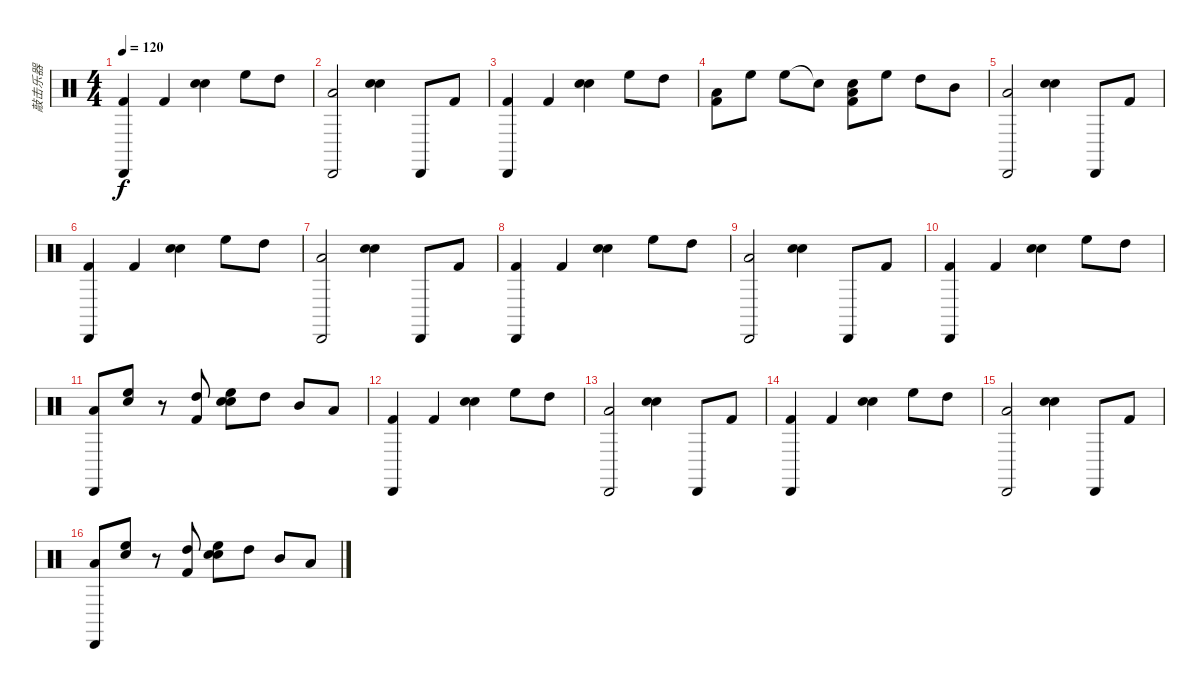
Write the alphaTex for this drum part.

\track ("敲击乐器" "敲击乐器") {instrument percussion}
\staff {score}
\articulation defaults
\ts (4 4)
\tempo 120
\clef neutral
\ks c
("Kick (hit) 2" "Cabasa (hit)").4{dy f} "Kick (hit) 2".4 ("Electric Snare (hit)" "Hand Clap (hit)").4 "High Floor Tom (hit)".8 "High Tom (hit)".8 |
("Low Tom (hit)" "Cabasa (hit)").2 ("Electric Snare (hit)" "Hand Clap (hit)").4 "Cabasa (hit)".8 "Kick (hit) 2".8 |
("Kick (hit) 2" "Cabasa (hit)").4 "Kick (hit) 2".4 ("Electric Snare (hit)" "Hand Clap (hit)").4 "High Floor Tom (hit)".8 "High Tom (hit)".8 |
("Low Tom (hit)" "Kick (hit) 2").8 "High Floor Tom (hit)".8 "High Floor Tom (hit)".8 "Snare (hit)"{t}.8 ("Low Tom (hit)" "Kick (hit) 2" "Electric Snare (hit)").8 "High Floor Tom (hit)".8 "High Tom (hit)".8 "Mid Tom (hit)".8 |
("Low Tom (hit)" "Cabasa (hit)").2 ("Electric Snare (hit)" "Hand Clap (hit)").4 "Cabasa (hit)".8 "Kick (hit) 2".8 |
("Kick (hit) 2" "Cabasa (hit)").4 "Kick (hit) 2".4 ("Electric Snare (hit)" "Hand Clap (hit)").4 "High Floor Tom (hit)".8 "High Tom (hit)".8 |
("Low Tom (hit)" "Cabasa (hit)").2 ("Electric Snare (hit)" "Hand Clap (hit)").4 "Cabasa (hit)".8 "Kick (hit) 2".8 |
("Kick (hit) 2" "Cabasa (hit)").4 "Kick (hit) 2".4 ("Electric Snare (hit)" "Hand Clap (hit)").4 "High Floor Tom (hit)".8 "High Tom (hit)".8 |
("Low Tom (hit)" "Cabasa (hit)").2 ("Electric Snare (hit)" "Hand Clap (hit)").4 "Cabasa (hit)".8 "Kick (hit) 2".8 |
("Kick (hit) 2" "Cabasa (hit)").4 "Kick (hit) 2".4 ("Electric Snare (hit)" "Hand Clap (hit)").4 "High Floor Tom (hit)".8 "High Tom (hit)".8 |
("Low Tom (hit)" "Cabasa (hit)").8 ("High Floor Tom (hit)" "Electric Snare (hit)").8 r.8 ("High Tom (hit)" "Kick (hit) 2").8 ("High Floor Tom (hit)" "Electric Snare (hit)" "Hand Clap (hit)").8 "High Tom (hit)".8 "Mid Tom (hit)".8 "Low Tom (hit)".8 |
("Kick (hit) 2" "Cabasa (hit)").4 "Kick (hit) 2".4 ("Electric Snare (hit)" "Hand Clap (hit)").4 "High Floor Tom (hit)".8 "High Tom (hit)".8 |
("Low Tom (hit)" "Cabasa (hit)").2 ("Electric Snare (hit)" "Hand Clap (hit)").4 "Cabasa (hit)".8 "Kick (hit) 2".8 |
("Kick (hit) 2" "Cabasa (hit)").4 "Kick (hit) 2".4 ("Electric Snare (hit)" "Hand Clap (hit)").4 "High Floor Tom (hit)".8 "High Tom (hit)".8 |
("Low Tom (hit)" "Cabasa (hit)").2 ("Electric Snare (hit)" "Hand Clap (hit)").4 "Cabasa (hit)".8 "Kick (hit) 2".8 |
("Low Tom (hit)" "Cabasa (hit)").8 ("High Floor Tom (hit)" "Electric Snare (hit)").8 r.8 ("High Tom (hit)" "Kick (hit) 2").8 ("High Floor Tom (hit)" "Electric Snare (hit)" "Hand Clap (hit)").8 "High Tom (hit)".8 "Mid Tom (hit)".8 "Low Tom (hit)".8
